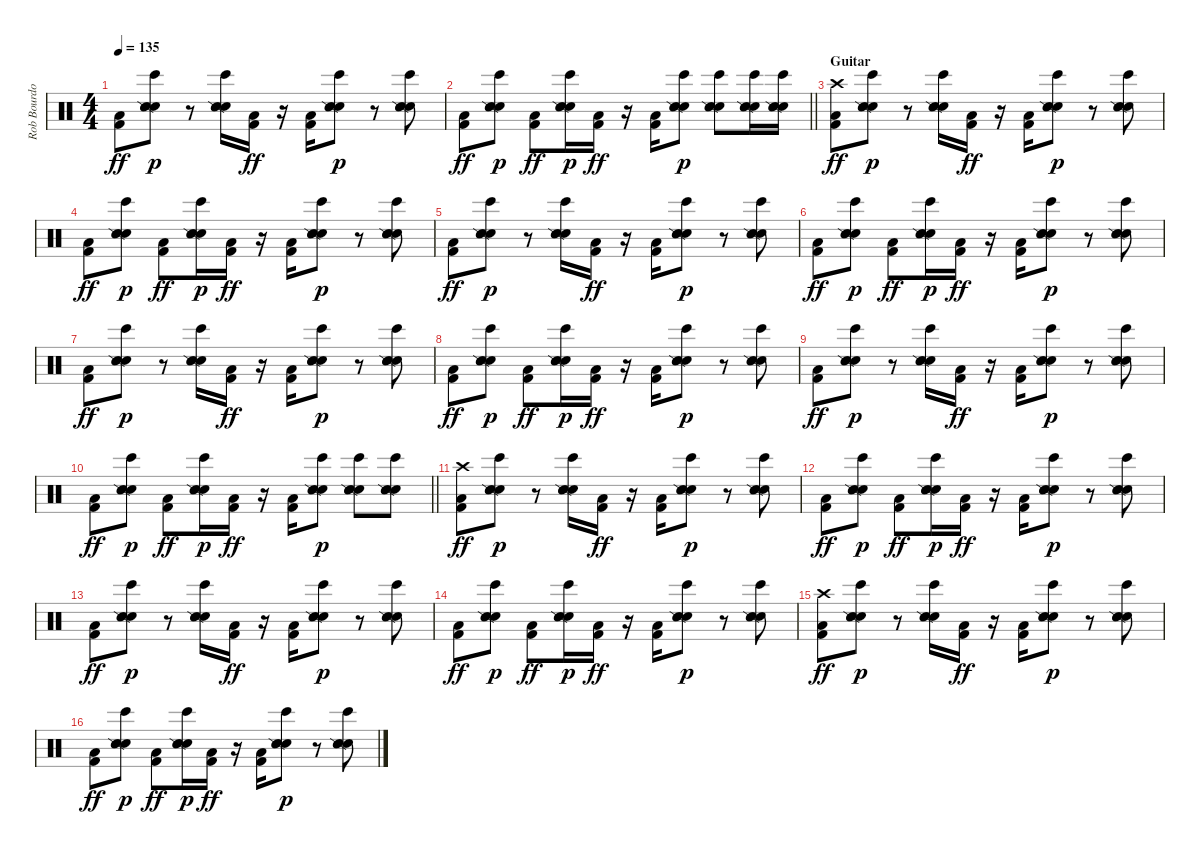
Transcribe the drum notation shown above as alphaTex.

\track ("Rob Bourdon - Beats & Drums" "Rob Bourdo") {instrument percussion}
\staff {score}
\articulation defaults
\ts (4 4)
\tempo 135
\clef neutral
\ks c
("Low Floor Tom (hit)" "Kick (hit) 2").8{dy ff} ("Bongo High (hit)" "Electric Snare (hit)" "Snare (side stick) 2" "Hand Clap (hit)").8{dy p} r.8 ("Bongo High (hit)" "Electric Snare (hit)" "Snare (side stick) 2" "Hand Clap (hit)").16 ("Low Floor Tom (hit)" "Kick (hit) 2").16{dy ff} r.16 ("Low Floor Tom (hit)" "Kick (hit) 2").16 ("Bongo High (hit)" "Electric Snare (hit)" "Snare (side stick) 2" "Hand Clap (hit)").8{dy p} r.8 ("Bongo High (hit)" "Electric Snare (hit)" "Snare (side stick) 2" "Hand Clap (hit)").8 |
\barLineRight lightlight
("Low Floor Tom (hit)" "Kick (hit) 2").8{dy ff} ("Bongo High (hit)" "Electric Snare (hit)" "Snare (side stick) 2" "Hand Clap (hit)").8{dy p} ("Low Floor Tom (hit)" "Kick (hit) 2").8{dy ff} ("Bongo High (hit)" "Electric Snare (hit)" "Snare (side stick) 2" "Hand Clap (hit)").16{dy p} ("Low Floor Tom (hit)" "Kick (hit) 2").16{dy ff} r.16 ("Low Floor Tom (hit)" "Kick (hit) 2").16 ("Bongo High (hit)" "Electric Snare (hit)" "Snare (side stick) 2" "Hand Clap (hit)").8{dy p} ("Bongo High (hit)" "Electric Snare (hit)" "Snare (side stick) 2" "Hand Clap (hit)").8 ("Bongo High (hit)" "Electric Snare (hit)" "Snare (side stick) 2" "Hand Clap (hit)").16 ("Bongo High (hit)" "Electric Snare (hit)" "Snare (side stick) 2" "Hand Clap (hit)").16 |
\section ("" "Guitar")
("Low Floor Tom (hit)" "Crash high (hit)" "Kick (hit) 2").8{dy ff} ("Bongo High (hit)" "Electric Snare (hit)" "Snare (side stick) 2" "Hand Clap (hit)").8{dy p} r.8 ("Bongo High (hit)" "Electric Snare (hit)" "Snare (side stick) 2" "Hand Clap (hit)").16 ("Low Floor Tom (hit)" "Kick (hit) 2").16{dy ff} r.16 ("Low Floor Tom (hit)" "Kick (hit) 2").16 ("Bongo High (hit)" "Electric Snare (hit)" "Snare (side stick) 2" "Hand Clap (hit)").8{dy p} r.8 ("Bongo High (hit)" "Electric Snare (hit)" "Snare (side stick) 2" "Hand Clap (hit)").8 |
("Low Floor Tom (hit)" "Kick (hit) 2").8{dy ff} ("Bongo High (hit)" "Electric Snare (hit)" "Snare (side stick) 2" "Hand Clap (hit)").8{dy p} ("Low Floor Tom (hit)" "Kick (hit) 2").8{dy ff} ("Bongo High (hit)" "Electric Snare (hit)" "Snare (side stick) 2" "Hand Clap (hit)").16{dy p} ("Low Floor Tom (hit)" "Kick (hit) 2").16{dy ff} r.16 ("Low Floor Tom (hit)" "Kick (hit) 2").16 ("Bongo High (hit)" "Electric Snare (hit)" "Snare (side stick) 2" "Hand Clap (hit)").8{dy p} r.8 ("Bongo High (hit)" "Electric Snare (hit)" "Snare (side stick) 2" "Hand Clap (hit)").8 |
("Low Floor Tom (hit)" "Kick (hit) 2").8{dy ff} ("Bongo High (hit)" "Electric Snare (hit)" "Snare (side stick) 2" "Hand Clap (hit)").8{dy p} r.8 ("Bongo High (hit)" "Electric Snare (hit)" "Snare (side stick) 2" "Hand Clap (hit)").16 ("Low Floor Tom (hit)" "Kick (hit) 2").16{dy ff} r.16 ("Low Floor Tom (hit)" "Kick (hit) 2").16 ("Bongo High (hit)" "Electric Snare (hit)" "Snare (side stick) 2" "Hand Clap (hit)").8{dy p} r.8 ("Bongo High (hit)" "Electric Snare (hit)" "Snare (side stick) 2" "Hand Clap (hit)").8 |
("Low Floor Tom (hit)" "Kick (hit) 2").8{dy ff} ("Bongo High (hit)" "Electric Snare (hit)" "Snare (side stick) 2" "Hand Clap (hit)").8{dy p} ("Low Floor Tom (hit)" "Kick (hit) 2").8{dy ff} ("Bongo High (hit)" "Electric Snare (hit)" "Snare (side stick) 2" "Hand Clap (hit)").16{dy p} ("Low Floor Tom (hit)" "Kick (hit) 2").16{dy ff} r.16 ("Low Floor Tom (hit)" "Kick (hit) 2").16 ("Bongo High (hit)" "Electric Snare (hit)" "Snare (side stick) 2" "Hand Clap (hit)").8{dy p} r.8 ("Bongo High (hit)" "Electric Snare (hit)" "Snare (side stick) 2" "Hand Clap (hit)").8 |
("Low Floor Tom (hit)" "Kick (hit) 2").8{dy ff} ("Bongo High (hit)" "Electric Snare (hit)" "Snare (side stick) 2" "Hand Clap (hit)").8{dy p} r.8 ("Bongo High (hit)" "Electric Snare (hit)" "Snare (side stick) 2" "Hand Clap (hit)").16 ("Low Floor Tom (hit)" "Kick (hit) 2").16{dy ff} r.16 ("Low Floor Tom (hit)" "Kick (hit) 2").16 ("Bongo High (hit)" "Electric Snare (hit)" "Snare (side stick) 2" "Hand Clap (hit)").8{dy p} r.8 ("Bongo High (hit)" "Electric Snare (hit)" "Snare (side stick) 2" "Hand Clap (hit)").8 |
("Low Floor Tom (hit)" "Kick (hit) 2").8{dy ff} ("Bongo High (hit)" "Electric Snare (hit)" "Snare (side stick) 2" "Hand Clap (hit)").8{dy p} ("Low Floor Tom (hit)" "Kick (hit) 2").8{dy ff} ("Bongo High (hit)" "Electric Snare (hit)" "Snare (side stick) 2" "Hand Clap (hit)").16{dy p} ("Low Floor Tom (hit)" "Kick (hit) 2").16{dy ff} r.16 ("Low Floor Tom (hit)" "Kick (hit) 2").16 ("Bongo High (hit)" "Electric Snare (hit)" "Snare (side stick) 2" "Hand Clap (hit)").8{dy p} r.8 ("Bongo High (hit)" "Electric Snare (hit)" "Snare (side stick) 2" "Hand Clap (hit)").8 |
("Low Floor Tom (hit)" "Kick (hit) 2").8{dy ff} ("Bongo High (hit)" "Electric Snare (hit)" "Snare (side stick) 2" "Hand Clap (hit)").8{dy p} r.8 ("Bongo High (hit)" "Electric Snare (hit)" "Snare (side stick) 2" "Hand Clap (hit)").16 ("Low Floor Tom (hit)" "Kick (hit) 2").16{dy ff} r.16 ("Low Floor Tom (hit)" "Kick (hit) 2").16 ("Bongo High (hit)" "Electric Snare (hit)" "Snare (side stick) 2" "Hand Clap (hit)").8{dy p} r.8 ("Bongo High (hit)" "Electric Snare (hit)" "Snare (side stick) 2" "Hand Clap (hit)").8 |
\barLineRight lightlight
("Low Floor Tom (hit)" "Kick (hit) 2").8{dy ff} ("Bongo High (hit)" "Electric Snare (hit)" "Snare (side stick) 2" "Hand Clap (hit)").8{dy p} ("Low Floor Tom (hit)" "Kick (hit) 2").8{dy ff} ("Bongo High (hit)" "Electric Snare (hit)" "Snare (side stick) 2" "Hand Clap (hit)").16{dy p} ("Low Floor Tom (hit)" "Kick (hit) 2").16{dy ff} r.16 ("Low Floor Tom (hit)" "Kick (hit) 2").16 ("Bongo High (hit)" "Electric Snare (hit)" "Snare (side stick) 2" "Hand Clap (hit)").8{dy p} ("Bongo High (hit)" "Electric Snare (hit)" "Snare (side stick) 2" "Hand Clap (hit)").8 ("Bongo High (hit)" "Electric Snare (hit)" "Snare (side stick) 2" "Hand Clap (hit)").8 |
\section ("" "")
("Low Floor Tom (hit)" "Crash high (hit)" "Kick (hit) 2").8{dy ff} ("Bongo High (hit)" "Electric Snare (hit)" "Snare (side stick) 2" "Hand Clap (hit)").8{dy p} r.8 ("Bongo High (hit)" "Electric Snare (hit)" "Snare (side stick) 2" "Hand Clap (hit)").16 ("Low Floor Tom (hit)" "Kick (hit) 2").16{dy ff} r.16 ("Low Floor Tom (hit)" "Kick (hit) 2").16 ("Bongo High (hit)" "Electric Snare (hit)" "Snare (side stick) 2" "Hand Clap (hit)").8{dy p} r.8 ("Bongo High (hit)" "Electric Snare (hit)" "Snare (side stick) 2" "Hand Clap (hit)").8 |
("Low Floor Tom (hit)" "Kick (hit) 2").8{dy ff} ("Bongo High (hit)" "Electric Snare (hit)" "Snare (side stick) 2" "Hand Clap (hit)").8{dy p} ("Low Floor Tom (hit)" "Kick (hit) 2").8{dy ff} ("Bongo High (hit)" "Electric Snare (hit)" "Snare (side stick) 2" "Hand Clap (hit)").16{dy p} ("Low Floor Tom (hit)" "Kick (hit) 2").16{dy ff} r.16 ("Low Floor Tom (hit)" "Kick (hit) 2").16 ("Bongo High (hit)" "Electric Snare (hit)" "Snare (side stick) 2" "Hand Clap (hit)").8{dy p} r.8 ("Bongo High (hit)" "Electric Snare (hit)" "Snare (side stick) 2" "Hand Clap (hit)").8 |
("Low Floor Tom (hit)" "Kick (hit) 2").8{dy ff} ("Bongo High (hit)" "Electric Snare (hit)" "Snare (side stick) 2" "Hand Clap (hit)").8{dy p} r.8 ("Bongo High (hit)" "Electric Snare (hit)" "Snare (side stick) 2" "Hand Clap (hit)").16 ("Low Floor Tom (hit)" "Kick (hit) 2").16{dy ff} r.16 ("Low Floor Tom (hit)" "Kick (hit) 2").16 ("Bongo High (hit)" "Electric Snare (hit)" "Snare (side stick) 2" "Hand Clap (hit)").8{dy p} r.8 ("Bongo High (hit)" "Electric Snare (hit)" "Snare (side stick) 2" "Hand Clap (hit)").8 |
("Low Floor Tom (hit)" "Kick (hit) 2").8{dy ff} ("Bongo High (hit)" "Electric Snare (hit)" "Snare (side stick) 2" "Hand Clap (hit)").8{dy p} ("Low Floor Tom (hit)" "Kick (hit) 2").8{dy ff} ("Bongo High (hit)" "Electric Snare (hit)" "Snare (side stick) 2" "Hand Clap (hit)").16{dy p} ("Low Floor Tom (hit)" "Kick (hit) 2").16{dy ff} r.16 ("Low Floor Tom (hit)" "Kick (hit) 2").16 ("Bongo High (hit)" "Electric Snare (hit)" "Snare (side stick) 2" "Hand Clap (hit)").8{dy p} r.8 ("Bongo High (hit)" "Electric Snare (hit)" "Snare (side stick) 2" "Hand Clap (hit)").8 |
("Low Floor Tom (hit)" "Crash high (hit)" "Kick (hit) 2").8{dy ff} ("Bongo High (hit)" "Electric Snare (hit)" "Snare (side stick) 2" "Hand Clap (hit)").8{dy p} r.8 ("Bongo High (hit)" "Electric Snare (hit)" "Snare (side stick) 2" "Hand Clap (hit)").16 ("Low Floor Tom (hit)" "Kick (hit) 2").16{dy ff} r.16 ("Low Floor Tom (hit)" "Kick (hit) 2").16 ("Bongo High (hit)" "Electric Snare (hit)" "Snare (side stick) 2" "Hand Clap (hit)").8{dy p} r.8 ("Bongo High (hit)" "Electric Snare (hit)" "Snare (side stick) 2" "Hand Clap (hit)").8 |
("Low Floor Tom (hit)" "Kick (hit) 2").8{dy ff} ("Bongo High (hit)" "Electric Snare (hit)" "Snare (side stick) 2" "Hand Clap (hit)").8{dy p} ("Low Floor Tom (hit)" "Kick (hit) 2").8{dy ff} ("Bongo High (hit)" "Electric Snare (hit)" "Snare (side stick) 2" "Hand Clap (hit)").16{dy p} ("Low Floor Tom (hit)" "Kick (hit) 2").16{dy ff} r.16 ("Low Floor Tom (hit)" "Kick (hit) 2").16 ("Bongo High (hit)" "Electric Snare (hit)" "Snare (side stick) 2" "Hand Clap (hit)").8{dy p} r.8 ("Bongo High (hit)" "Electric Snare (hit)" "Snare (side stick) 2" "Hand Clap (hit)").8
